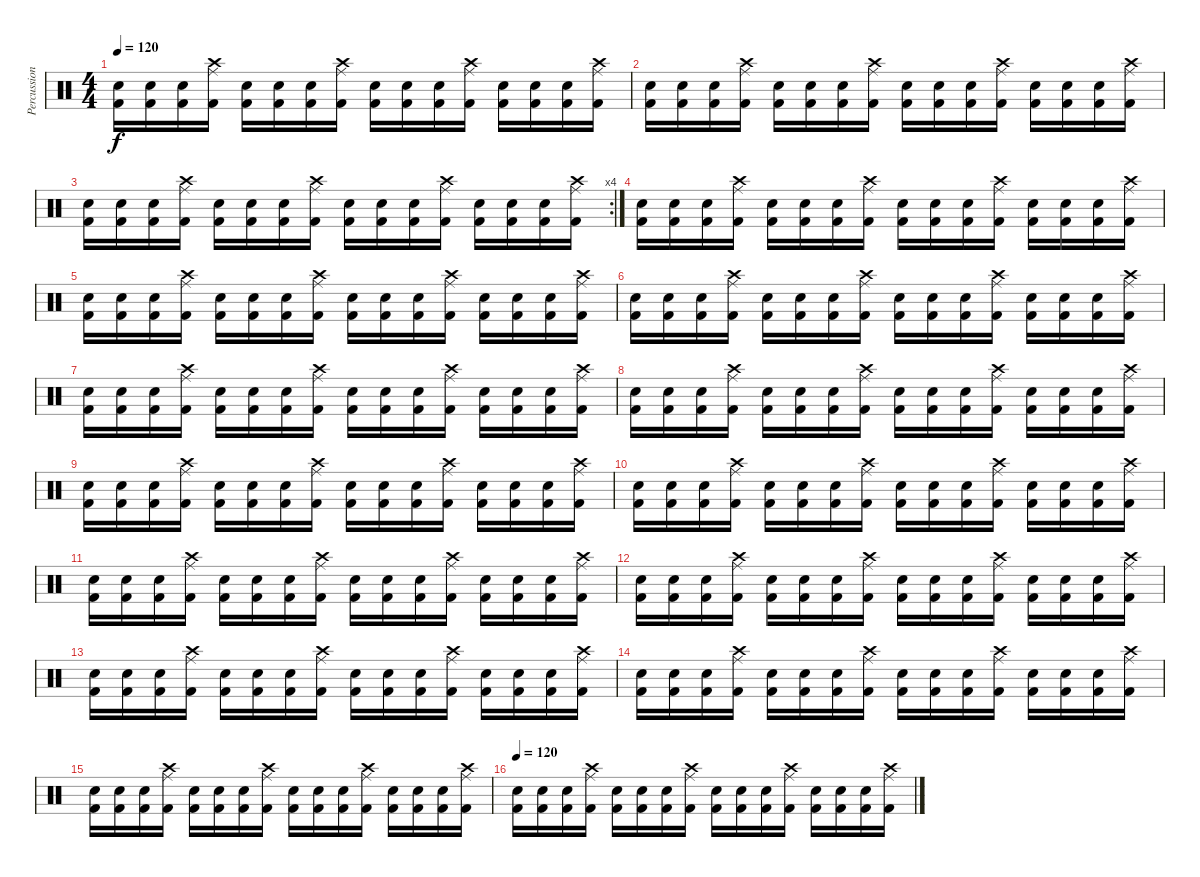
\track ("Percussion" "Percussion") {instrument percussion}
\staff {score}
\articulation defaults
\ts (4 4)
\tempo 120
\clef neutral
\ks c
("Electric Snare (hit)" "Kick (hit) 2").16{dy f} ("Electric Snare (hit)" "Kick (hit) 2").16 ("Electric Snare (hit)" "Kick (hit) 2").16 ("Ride (middle)" "Crash high (hit)" "Kick (hit) 2").16 ("Electric Snare (hit)" "Kick (hit) 2").16 ("Electric Snare (hit)" "Kick (hit) 2").16 ("Electric Snare (hit)" "Kick (hit) 2").16 ("Ride (middle)" "Crash high (hit)" "Kick (hit) 2").16 ("Electric Snare (hit)" "Kick (hit) 2").16 ("Electric Snare (hit)" "Kick (hit) 2").16 ("Electric Snare (hit)" "Kick (hit) 2").16 ("Ride (middle)" "Crash high (hit)" "Kick (hit) 2").16 ("Electric Snare (hit)" "Kick (hit) 2").16 ("Electric Snare (hit)" "Kick (hit) 2").16 ("Electric Snare (hit)" "Kick (hit) 2").16 ("Ride (middle)" "Crash high (hit)" "Kick (hit) 2").16 |
("Electric Snare (hit)" "Kick (hit) 2").16 ("Electric Snare (hit)" "Kick (hit) 2").16 ("Electric Snare (hit)" "Kick (hit) 2").16 ("Ride (middle)" "Crash high (hit)" "Kick (hit) 2").16 ("Electric Snare (hit)" "Kick (hit) 2").16 ("Electric Snare (hit)" "Kick (hit) 2").16 ("Electric Snare (hit)" "Kick (hit) 2").16 ("Ride (middle)" "Crash high (hit)" "Kick (hit) 2").16 ("Electric Snare (hit)" "Kick (hit) 2").16 ("Electric Snare (hit)" "Kick (hit) 2").16 ("Electric Snare (hit)" "Kick (hit) 2").16 ("Ride (middle)" "Crash high (hit)" "Kick (hit) 2").16 ("Electric Snare (hit)" "Kick (hit) 2").16 ("Electric Snare (hit)" "Kick (hit) 2").16 ("Electric Snare (hit)" "Kick (hit) 2").16 ("Ride (middle)" "Crash high (hit)" "Kick (hit) 2").16 |
\rc 4
("Electric Snare (hit)" "Kick (hit) 2").16 ("Electric Snare (hit)" "Kick (hit) 2").16 ("Electric Snare (hit)" "Kick (hit) 2").16 ("Ride (middle)" "Crash high (hit)" "Kick (hit) 2").16 ("Electric Snare (hit)" "Kick (hit) 2").16 ("Electric Snare (hit)" "Kick (hit) 2").16 ("Electric Snare (hit)" "Kick (hit) 2").16 ("Ride (middle)" "Crash high (hit)" "Kick (hit) 2").16 ("Electric Snare (hit)" "Kick (hit) 2").16 ("Electric Snare (hit)" "Kick (hit) 2").16 ("Electric Snare (hit)" "Kick (hit) 2").16 ("Ride (middle)" "Crash high (hit)" "Kick (hit) 2").16 ("Electric Snare (hit)" "Kick (hit) 2").16 ("Electric Snare (hit)" "Kick (hit) 2").16 ("Electric Snare (hit)" "Kick (hit) 2").16 ("Ride (middle)" "Crash high (hit)" "Kick (hit) 2").16 |
("Electric Snare (hit)" "Kick (hit) 2").16 ("Electric Snare (hit)" "Kick (hit) 2").16 ("Electric Snare (hit)" "Kick (hit) 2").16 ("Ride (middle)" "Crash high (hit)" "Kick (hit) 2").16 ("Electric Snare (hit)" "Kick (hit) 2").16 ("Electric Snare (hit)" "Kick (hit) 2").16 ("Electric Snare (hit)" "Kick (hit) 2").16 ("Ride (middle)" "Crash high (hit)" "Kick (hit) 2").16 ("Electric Snare (hit)" "Kick (hit) 2").16 ("Electric Snare (hit)" "Kick (hit) 2").16 ("Electric Snare (hit)" "Kick (hit) 2").16 ("Ride (middle)" "Crash high (hit)" "Kick (hit) 2").16 ("Electric Snare (hit)" "Kick (hit) 2").16 ("Electric Snare (hit)" "Kick (hit) 2").16 ("Electric Snare (hit)" "Kick (hit) 2").16 ("Ride (middle)" "Crash high (hit)" "Kick (hit) 2").16 |
("Electric Snare (hit)" "Kick (hit) 2").16 ("Electric Snare (hit)" "Kick (hit) 2").16 ("Electric Snare (hit)" "Kick (hit) 2").16 ("Ride (middle)" "Crash high (hit)" "Kick (hit) 2").16 ("Electric Snare (hit)" "Kick (hit) 2").16 ("Electric Snare (hit)" "Kick (hit) 2").16 ("Electric Snare (hit)" "Kick (hit) 2").16 ("Ride (middle)" "Crash high (hit)" "Kick (hit) 2").16 ("Electric Snare (hit)" "Kick (hit) 2").16 ("Electric Snare (hit)" "Kick (hit) 2").16 ("Electric Snare (hit)" "Kick (hit) 2").16 ("Ride (middle)" "Crash high (hit)" "Kick (hit) 2").16 ("Electric Snare (hit)" "Kick (hit) 2").16 ("Electric Snare (hit)" "Kick (hit) 2").16 ("Electric Snare (hit)" "Kick (hit) 2").16 ("Ride (middle)" "Crash high (hit)" "Kick (hit) 2").16 |
("Electric Snare (hit)" "Kick (hit) 2").16 ("Electric Snare (hit)" "Kick (hit) 2").16 ("Electric Snare (hit)" "Kick (hit) 2").16 ("Ride (middle)" "Crash high (hit)" "Kick (hit) 2").16 ("Electric Snare (hit)" "Kick (hit) 2").16 ("Electric Snare (hit)" "Kick (hit) 2").16 ("Electric Snare (hit)" "Kick (hit) 2").16 ("Ride (middle)" "Crash high (hit)" "Kick (hit) 2").16 ("Electric Snare (hit)" "Kick (hit) 2").16 ("Electric Snare (hit)" "Kick (hit) 2").16 ("Electric Snare (hit)" "Kick (hit) 2").16 ("Ride (middle)" "Crash high (hit)" "Kick (hit) 2").16 ("Electric Snare (hit)" "Kick (hit) 2").16 ("Electric Snare (hit)" "Kick (hit) 2").16 ("Electric Snare (hit)" "Kick (hit) 2").16 ("Ride (middle)" "Crash high (hit)" "Kick (hit) 2").16 |
("Electric Snare (hit)" "Kick (hit) 2").16 ("Electric Snare (hit)" "Kick (hit) 2").16 ("Electric Snare (hit)" "Kick (hit) 2").16 ("Ride (middle)" "Crash high (hit)" "Kick (hit) 2").16 ("Electric Snare (hit)" "Kick (hit) 2").16 ("Electric Snare (hit)" "Kick (hit) 2").16 ("Electric Snare (hit)" "Kick (hit) 2").16 ("Ride (middle)" "Crash high (hit)" "Kick (hit) 2").16 ("Electric Snare (hit)" "Kick (hit) 2").16 ("Electric Snare (hit)" "Kick (hit) 2").16 ("Electric Snare (hit)" "Kick (hit) 2").16 ("Ride (middle)" "Crash high (hit)" "Kick (hit) 2").16 ("Electric Snare (hit)" "Kick (hit) 2").16 ("Electric Snare (hit)" "Kick (hit) 2").16 ("Electric Snare (hit)" "Kick (hit) 2").16 ("Ride (middle)" "Crash high (hit)" "Kick (hit) 2").16 |
("Electric Snare (hit)" "Kick (hit) 2").16 ("Electric Snare (hit)" "Kick (hit) 2").16 ("Electric Snare (hit)" "Kick (hit) 2").16 ("Ride (middle)" "Crash high (hit)" "Kick (hit) 2").16 ("Electric Snare (hit)" "Kick (hit) 2").16 ("Electric Snare (hit)" "Kick (hit) 2").16 ("Electric Snare (hit)" "Kick (hit) 2").16 ("Ride (middle)" "Crash high (hit)" "Kick (hit) 2").16 ("Electric Snare (hit)" "Kick (hit) 2").16 ("Electric Snare (hit)" "Kick (hit) 2").16 ("Electric Snare (hit)" "Kick (hit) 2").16 ("Ride (middle)" "Crash high (hit)" "Kick (hit) 2").16 ("Electric Snare (hit)" "Kick (hit) 2").16 ("Electric Snare (hit)" "Kick (hit) 2").16 ("Electric Snare (hit)" "Kick (hit) 2").16 ("Ride (middle)" "Crash high (hit)" "Kick (hit) 2").16 |
("Electric Snare (hit)" "Kick (hit) 2").16 ("Electric Snare (hit)" "Kick (hit) 2").16 ("Electric Snare (hit)" "Kick (hit) 2").16 ("Ride (middle)" "Crash high (hit)" "Kick (hit) 2").16 ("Electric Snare (hit)" "Kick (hit) 2").16 ("Electric Snare (hit)" "Kick (hit) 2").16 ("Electric Snare (hit)" "Kick (hit) 2").16 ("Ride (middle)" "Crash high (hit)" "Kick (hit) 2").16 ("Electric Snare (hit)" "Kick (hit) 2").16 ("Electric Snare (hit)" "Kick (hit) 2").16 ("Electric Snare (hit)" "Kick (hit) 2").16 ("Ride (middle)" "Crash high (hit)" "Kick (hit) 2").16 ("Electric Snare (hit)" "Kick (hit) 2").16 ("Electric Snare (hit)" "Kick (hit) 2").16 ("Electric Snare (hit)" "Kick (hit) 2").16 ("Ride (middle)" "Crash high (hit)" "Kick (hit) 2").16 |
("Electric Snare (hit)" "Kick (hit) 2").16 ("Electric Snare (hit)" "Kick (hit) 2").16 ("Electric Snare (hit)" "Kick (hit) 2").16 ("Ride (middle)" "Crash high (hit)" "Kick (hit) 2").16 ("Electric Snare (hit)" "Kick (hit) 2").16 ("Electric Snare (hit)" "Kick (hit) 2").16 ("Electric Snare (hit)" "Kick (hit) 2").16 ("Ride (middle)" "Crash high (hit)" "Kick (hit) 2").16 ("Electric Snare (hit)" "Kick (hit) 2").16 ("Electric Snare (hit)" "Kick (hit) 2").16 ("Electric Snare (hit)" "Kick (hit) 2").16 ("Ride (middle)" "Crash high (hit)" "Kick (hit) 2").16 ("Electric Snare (hit)" "Kick (hit) 2").16 ("Electric Snare (hit)" "Kick (hit) 2").16 ("Electric Snare (hit)" "Kick (hit) 2").16 ("Ride (middle)" "Crash high (hit)" "Kick (hit) 2").16 |
("Electric Snare (hit)" "Kick (hit) 2").16 ("Electric Snare (hit)" "Kick (hit) 2").16 ("Electric Snare (hit)" "Kick (hit) 2").16 ("Ride (middle)" "Crash high (hit)" "Kick (hit) 2").16 ("Electric Snare (hit)" "Kick (hit) 2").16 ("Electric Snare (hit)" "Kick (hit) 2").16 ("Electric Snare (hit)" "Kick (hit) 2").16 ("Ride (middle)" "Crash high (hit)" "Kick (hit) 2").16 ("Electric Snare (hit)" "Kick (hit) 2").16 ("Electric Snare (hit)" "Kick (hit) 2").16 ("Electric Snare (hit)" "Kick (hit) 2").16 ("Ride (middle)" "Crash high (hit)" "Kick (hit) 2").16 ("Electric Snare (hit)" "Kick (hit) 2").16 ("Electric Snare (hit)" "Kick (hit) 2").16 ("Electric Snare (hit)" "Kick (hit) 2").16 ("Ride (middle)" "Crash high (hit)" "Kick (hit) 2").16 |
("Electric Snare (hit)" "Kick (hit) 2").16 ("Electric Snare (hit)" "Kick (hit) 2").16 ("Electric Snare (hit)" "Kick (hit) 2").16 ("Ride (middle)" "Crash high (hit)" "Kick (hit) 2").16 ("Electric Snare (hit)" "Kick (hit) 2").16 ("Electric Snare (hit)" "Kick (hit) 2").16 ("Electric Snare (hit)" "Kick (hit) 2").16 ("Ride (middle)" "Crash high (hit)" "Kick (hit) 2").16 ("Electric Snare (hit)" "Kick (hit) 2").16 ("Electric Snare (hit)" "Kick (hit) 2").16 ("Electric Snare (hit)" "Kick (hit) 2").16 ("Ride (middle)" "Crash high (hit)" "Kick (hit) 2").16 ("Electric Snare (hit)" "Kick (hit) 2").16 ("Electric Snare (hit)" "Kick (hit) 2").16 ("Electric Snare (hit)" "Kick (hit) 2").16 ("Ride (middle)" "Crash high (hit)" "Kick (hit) 2").16 |
("Electric Snare (hit)" "Kick (hit) 2").16 ("Electric Snare (hit)" "Kick (hit) 2").16 ("Electric Snare (hit)" "Kick (hit) 2").16 ("Ride (middle)" "Crash high (hit)" "Kick (hit) 2").16 ("Electric Snare (hit)" "Kick (hit) 2").16 ("Electric Snare (hit)" "Kick (hit) 2").16 ("Electric Snare (hit)" "Kick (hit) 2").16 ("Ride (middle)" "Crash high (hit)" "Kick (hit) 2").16 ("Electric Snare (hit)" "Kick (hit) 2").16 ("Electric Snare (hit)" "Kick (hit) 2").16 ("Electric Snare (hit)" "Kick (hit) 2").16 ("Ride (middle)" "Crash high (hit)" "Kick (hit) 2").16 ("Electric Snare (hit)" "Kick (hit) 2").16 ("Electric Snare (hit)" "Kick (hit) 2").16 ("Electric Snare (hit)" "Kick (hit) 2").16 ("Ride (middle)" "Crash high (hit)" "Kick (hit) 2").16 |
("Electric Snare (hit)" "Kick (hit) 2").16 ("Electric Snare (hit)" "Kick (hit) 2").16 ("Electric Snare (hit)" "Kick (hit) 2").16 ("Ride (middle)" "Crash high (hit)" "Kick (hit) 2").16 ("Electric Snare (hit)" "Kick (hit) 2").16 ("Electric Snare (hit)" "Kick (hit) 2").16 ("Electric Snare (hit)" "Kick (hit) 2").16 ("Ride (middle)" "Crash high (hit)" "Kick (hit) 2").16 ("Electric Snare (hit)" "Kick (hit) 2").16 ("Electric Snare (hit)" "Kick (hit) 2").16 ("Electric Snare (hit)" "Kick (hit) 2").16 ("Ride (middle)" "Crash high (hit)" "Kick (hit) 2").16 ("Electric Snare (hit)" "Kick (hit) 2").16 ("Electric Snare (hit)" "Kick (hit) 2").16 ("Electric Snare (hit)" "Kick (hit) 2").16 ("Ride (middle)" "Crash high (hit)" "Kick (hit) 2").16 |
("Electric Snare (hit)" "Kick (hit) 2").16 ("Electric Snare (hit)" "Kick (hit) 2").16 ("Electric Snare (hit)" "Kick (hit) 2").16 ("Ride (middle)" "Crash high (hit)" "Kick (hit) 2").16 ("Electric Snare (hit)" "Kick (hit) 2").16 ("Electric Snare (hit)" "Kick (hit) 2").16 ("Electric Snare (hit)" "Kick (hit) 2").16 ("Ride (middle)" "Crash high (hit)" "Kick (hit) 2").16 ("Electric Snare (hit)" "Kick (hit) 2").16 ("Electric Snare (hit)" "Kick (hit) 2").16 ("Electric Snare (hit)" "Kick (hit) 2").16 ("Ride (middle)" "Crash high (hit)" "Kick (hit) 2").16 ("Electric Snare (hit)" "Kick (hit) 2").16 ("Electric Snare (hit)" "Kick (hit) 2").16 ("Electric Snare (hit)" "Kick (hit) 2").16 ("Ride (middle)" "Crash high (hit)" "Kick (hit) 2").16 |
\tempo 120
("Electric Snare (hit)" "Kick (hit) 2").16 ("Electric Snare (hit)" "Kick (hit) 2").16 ("Electric Snare (hit)" "Kick (hit) 2").16 ("Ride (middle)" "Crash high (hit)" "Kick (hit) 2").16 ("Electric Snare (hit)" "Kick (hit) 2").16 ("Electric Snare (hit)" "Kick (hit) 2").16 ("Electric Snare (hit)" "Kick (hit) 2").16 ("Ride (middle)" "Crash high (hit)" "Kick (hit) 2").16 ("Electric Snare (hit)" "Kick (hit) 2").16 ("Electric Snare (hit)" "Kick (hit) 2").16 ("Electric Snare (hit)" "Kick (hit) 2").16 ("Ride (middle)" "Crash high (hit)" "Kick (hit) 2").16 ("Electric Snare (hit)" "Kick (hit) 2").16 ("Electric Snare (hit)" "Kick (hit) 2").16 ("Electric Snare (hit)" "Kick (hit) 2").16 ("Ride (middle)" "Crash high (hit)" "Kick (hit) 2").16
